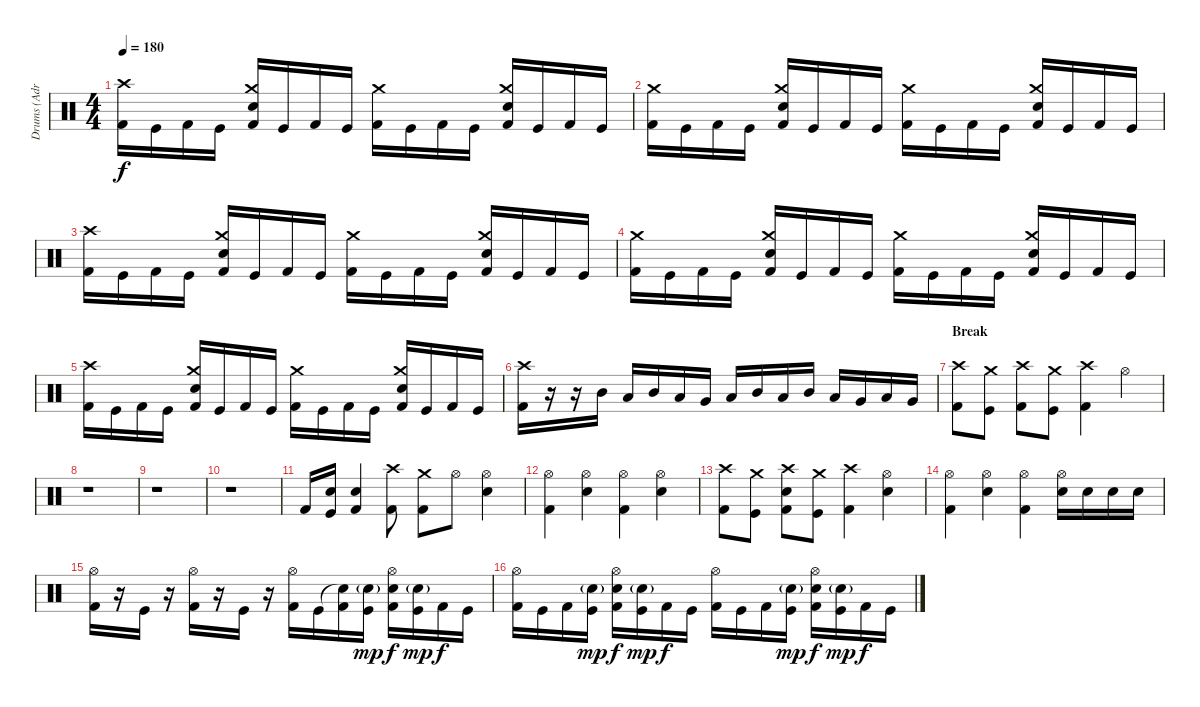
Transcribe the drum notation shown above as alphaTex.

\track ("Drums (Adrian)" "Drums (Adr") {instrument percussion}
\staff {score}
\articulation defaults
\ts (4 4)
\tempo 180
\clef neutral
\ks c
("Crash high (hit)" "Kick (hit) 2").16{dy f} "Kick (hit)".16 "Kick (hit) 2".16 "Kick (hit)".16 ("Crash medium (hit)" "Electric Snare (hit)" "Kick (hit) 2").16 "Kick (hit)".16 "Kick (hit) 2".16 "Kick (hit)".16 ("Crash medium (hit)" "Kick (hit) 2").16 "Kick (hit)".16 "Kick (hit) 2".16 "Kick (hit)".16 ("Crash medium (hit)" "Electric Snare (hit)" "Kick (hit) 2").16 "Kick (hit)".16 "Kick (hit) 2".16 "Kick (hit)".16 |
("Crash medium (hit)" "Kick (hit) 2").16 "Kick (hit)".16 "Kick (hit) 2".16 "Kick (hit)".16 ("Crash medium (hit)" "Electric Snare (hit)" "Kick (hit) 2").16 "Kick (hit)".16 "Kick (hit) 2".16 "Kick (hit)".16 ("Crash medium (hit)" "Kick (hit) 2").16 "Kick (hit)".16 "Kick (hit) 2".16 "Kick (hit)".16 ("Crash medium (hit)" "Electric Snare (hit)" "Kick (hit) 2").16 "Kick (hit)".16 "Kick (hit) 2".16 "Kick (hit)".16 |
("Crash high (hit)" "Kick (hit) 2").16 "Kick (hit)".16 "Kick (hit) 2".16 "Kick (hit)".16 ("Crash medium (hit)" "Electric Snare (hit)" "Kick (hit) 2").16 "Kick (hit)".16 "Kick (hit) 2".16 "Kick (hit)".16 ("Crash medium (hit)" "Kick (hit) 2").16 "Kick (hit)".16 "Kick (hit) 2".16 "Kick (hit)".16 ("Crash medium (hit)" "Electric Snare (hit)" "Kick (hit) 2").16 "Kick (hit)".16 "Kick (hit) 2".16 "Kick (hit)".16 |
("Crash medium (hit)" "Kick (hit) 2").16 "Kick (hit)".16 "Kick (hit) 2".16 "Kick (hit)".16 ("Crash medium (hit)" "Electric Snare (hit)" "Kick (hit) 2").16 "Kick (hit)".16 "Kick (hit) 2".16 "Kick (hit)".16 ("Crash medium (hit)" "Kick (hit) 2").16 "Kick (hit)".16 "Kick (hit) 2".16 "Kick (hit)".16 ("Crash medium (hit)" "Electric Snare (hit)" "Kick (hit) 2").16 "Kick (hit)".16 "Kick (hit) 2".16 "Kick (hit)".16 |
("Crash high (hit)" "Kick (hit) 2").16 "Kick (hit)".16 "Kick (hit) 2".16 "Kick (hit)".16 ("Crash medium (hit)" "Electric Snare (hit)" "Kick (hit) 2").16 "Kick (hit)".16 "Kick (hit) 2".16 "Kick (hit)".16 ("Crash medium (hit)" "Kick (hit) 2").16 "Kick (hit)".16 "Kick (hit) 2".16 "Kick (hit)".16 ("Crash medium (hit)" "Electric Snare (hit)" "Kick (hit) 2").16 "Kick (hit)".16 "Kick (hit) 2".16 "Kick (hit)".16 |
("Crash high (hit)" "Kick (hit) 2").16 r.16 r.16 "Mid Tom (hit)".16 "Low Tom (hit)".16 "Mid Tom (hit)".16 "Low Tom (hit)".16 "Very Low Tom (hit)".16 "Low Tom (hit)".16 "Mid Tom (hit)".16 "Low Tom (hit)".16 "Mid Tom (hit)".16 "Low Tom (hit)".16 "Very Low Tom (hit)".16 "Low Floor Tom (hit)".16 "Very Low Tom (hit)".16 |
\section ("" "Break")
("Crash high (hit)" "Kick (hit) 2").8 ("Crash medium (hit)" "Kick (hit)").8 ("Crash high (hit)" "Kick (hit) 2").8 ("Crash medium (hit)" "Kick (hit)").8 ("Crash high (hit)" "Kick (hit) 2").4 "Hi-Hat (open)".4 |
r.1 |
r.1 |
r.1 |
"Kick (hit) 2".16 ("Electric Snare (hit)" "Kick (hit)").16 ("Electric Snare (hit)" "Kick (hit) 2").4 ("Crash high (hit)" "Kick (hit) 2").8 ("Crash medium (hit)" "Kick (hit) 2").8 "Hi-Hat (open)".8 ("Hi-Hat (open)" "Electric Snare (hit)").4 |
("Hi-Hat (open)" "Kick (hit) 2").4 ("Hi-Hat (open)" "Electric Snare (hit)").4 ("Hi-Hat (open)" "Kick (hit) 2").4 ("Hi-Hat (open)" "Electric Snare (hit)").4 |
("Crash high (hit)" "Kick (hit) 2").8 ("Crash medium (hit)" "Kick (hit)").8 ("Crash high (hit)" "Electric Snare (hit)" "Kick (hit) 2").8 ("Crash medium (hit)" "Kick (hit)").8 ("Crash high (hit)" "Kick (hit) 2").4 ("Hi-Hat (open)" "Electric Snare (hit)").4 |
("Hi-Hat (open)" "Kick (hit) 2").4 ("Hi-Hat (open)" "Electric Snare (hit)").4 ("Hi-Hat (open)" "Kick (hit) 2").4 ("Hi-Hat (open)" "Electric Snare (hit)").16 "Electric Snare (hit)".16 "Electric Snare (hit)".16 "Electric Snare (hit)".16 |
("Hi-Hat (open)" "Kick (hit) 2").16 r.16 "Kick (hit)".16 r.16 ("Hi-Hat (open)" "Kick (hit) 2").16 r.16 "Kick (hit)".16 r.16 ("Hi-Hat (open)" "Kick (hit) 2").16 "Kick (hit)".16 ("Snare (hit)"{t} "Kick (hit) 2").16 ("Electric Snare (hit)"{g} "Kick (hit)").16{dy mp} ("Hi-Hat (open)" "Electric Snare (hit)" "Kick (hit) 2").16{dy f} ("Electric Snare (hit)"{g} "Kick (hit)").16{dy mp} "Kick (hit) 2".16{dy f} "Kick (hit)".16 |
("Hi-Hat (open)" "Kick (hit) 2").16 "Kick (hit)".16 "Kick (hit) 2".16 ("Electric Snare (hit)"{g} "Kick (hit)").16{dy mp} ("Hi-Hat (open)" "Electric Snare (hit)" "Kick (hit) 2").16{dy f} ("Electric Snare (hit)"{g} "Kick (hit)").16{dy mp} "Kick (hit) 2".16{dy f} "Kick (hit)".16 ("Hi-Hat (open)" "Kick (hit) 2").16 "Kick (hit)".16 "Kick (hit) 2".16 ("Electric Snare (hit)"{g} "Kick (hit)").16{dy mp} ("Hi-Hat (open)" "Electric Snare (hit)" "Kick (hit) 2").16{dy f} ("Electric Snare (hit)"{g} "Kick (hit)").16{dy mp} "Kick (hit) 2".16{dy f} "Kick (hit)".16
